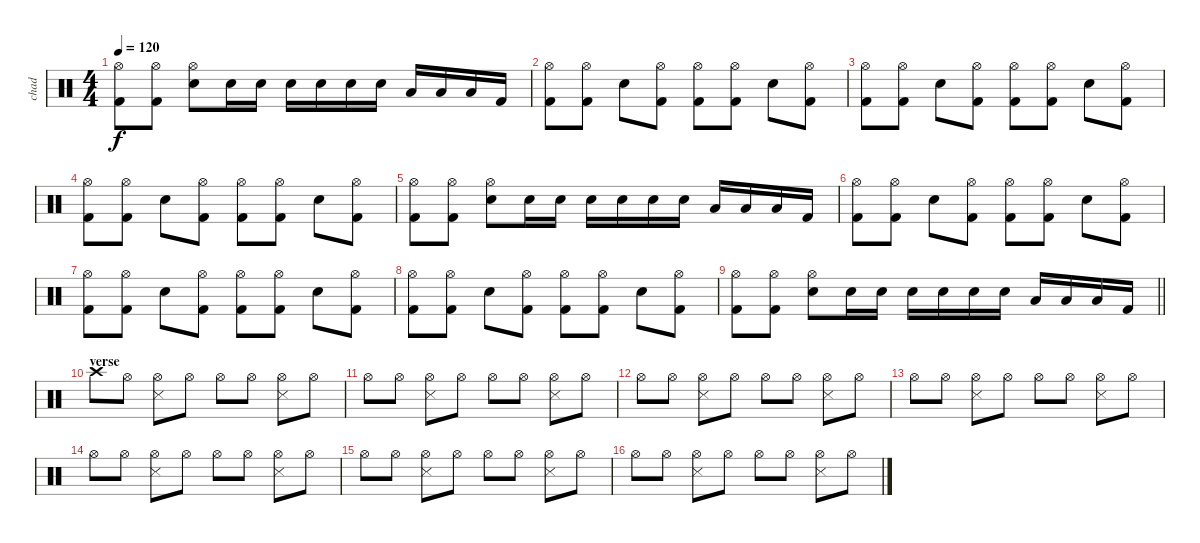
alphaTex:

\track ("chad" "chad") {instrument percussion}
\staff {score}
\articulation defaults
\ts (4 4)
\tempo 120
\clef neutral
\ks c
("Hi-Hat (open)" "Kick (hit) 2").8{dy f} ("Hi-Hat (open)" "Kick (hit) 2").8 ("Hi-Hat (open)" "Electric Snare (hit)").8 "Snare (hit) 2".16 "Snare (hit) 2".16 "Snare (hit) 2".16 "Electric Snare (hit)".16 "Electric Snare (hit)".16 "Electric Snare (hit)".16 "Low Tom (hit)".16 "Low Tom (hit)".16 "Low Tom (hit)".16 "Kick (hit) 2".16 |
("Hi-Hat (open)" "Kick (hit) 2").8 ("Hi-Hat (open)" "Kick (hit) 2").8 "Electric Snare (hit)".8 ("Hi-Hat (open)" "Kick (hit) 2").8 ("Hi-Hat (open)" "Kick (hit) 2").8 ("Hi-Hat (open)" "Kick (hit) 2").8 "Electric Snare (hit)".8 ("Hi-Hat (open)" "Kick (hit) 2").8 |
("Hi-Hat (open)" "Kick (hit) 2").8 ("Hi-Hat (open)" "Kick (hit) 2").8 "Electric Snare (hit)".8 ("Hi-Hat (open)" "Kick (hit) 2").8 ("Hi-Hat (open)" "Kick (hit) 2").8 ("Hi-Hat (open)" "Kick (hit) 2").8 "Electric Snare (hit)".8 ("Hi-Hat (open)" "Kick (hit) 2").8 |
("Hi-Hat (open)" "Kick (hit) 2").8 ("Hi-Hat (open)" "Kick (hit) 2").8 "Electric Snare (hit)".8 ("Hi-Hat (open)" "Kick (hit) 2").8 ("Hi-Hat (open)" "Kick (hit) 2").8 ("Hi-Hat (open)" "Kick (hit) 2").8 "Electric Snare (hit)".8 ("Hi-Hat (open)" "Kick (hit) 2").8 |
("Hi-Hat (open)" "Kick (hit) 2").8 ("Hi-Hat (open)" "Kick (hit) 2").8 ("Hi-Hat (open)" "Electric Snare (hit)").8 "Snare (hit) 2".16 "Snare (hit) 2".16 "Snare (hit) 2".16 "Electric Snare (hit)".16 "Electric Snare (hit)".16 "Electric Snare (hit)".16 "Low Tom (hit)".16 "Low Tom (hit)".16 "Low Tom (hit)".16 "Kick (hit) 2".16 |
("Hi-Hat (open)" "Kick (hit) 2").8 ("Hi-Hat (open)" "Kick (hit) 2").8 "Electric Snare (hit)".8 ("Hi-Hat (open)" "Kick (hit) 2").8 ("Hi-Hat (open)" "Kick (hit) 2").8 ("Hi-Hat (open)" "Kick (hit) 2").8 "Electric Snare (hit)".8 ("Hi-Hat (open)" "Kick (hit) 2").8 |
("Hi-Hat (open)" "Kick (hit) 2").8 ("Hi-Hat (open)" "Kick (hit) 2").8 "Electric Snare (hit)".8 ("Hi-Hat (open)" "Kick (hit) 2").8 ("Hi-Hat (open)" "Kick (hit) 2").8 ("Hi-Hat (open)" "Kick (hit) 2").8 "Electric Snare (hit)".8 ("Hi-Hat (open)" "Kick (hit) 2").8 |
("Hi-Hat (open)" "Kick (hit) 2").8 ("Hi-Hat (open)" "Kick (hit) 2").8 "Electric Snare (hit)".8 ("Hi-Hat (open)" "Kick (hit) 2").8 ("Hi-Hat (open)" "Kick (hit) 2").8 ("Hi-Hat (open)" "Kick (hit) 2").8 "Electric Snare (hit)".8 ("Hi-Hat (open)" "Kick (hit) 2").8 |
\barLineRight lightlight
("Hi-Hat (open)" "Kick (hit) 2").8 ("Hi-Hat (open)" "Kick (hit) 2").8 ("Hi-Hat (open)" "Electric Snare (hit)").8 "Snare (hit) 2".16 "Snare (hit) 2".16 "Snare (hit) 2".16 "Electric Snare (hit)".16 "Electric Snare (hit)".16 "Electric Snare (hit)".16 "Low Tom (hit)".16 "Low Tom (hit)".16 "Low Tom (hit)".16 "Kick (hit) 2".16 |
\section ("" "verse")
"Crash high (hit)".8 "Hi-Hat (open)".8 ("Hi-Hat (open)" "Snare (side stick) 3").8 "Hi-Hat (open)".8 "Hi-Hat (open)".8 "Hi-Hat (open)".8 ("Hi-Hat (open)" "Snare (side stick) 3").8 "Hi-Hat (open)".8 |
"Hi-Hat (open)".8 "Hi-Hat (open)".8 ("Hi-Hat (open)" "Snare (side stick) 3").8 "Hi-Hat (open)".8 "Hi-Hat (open)".8 "Hi-Hat (open)".8 ("Hi-Hat (open)" "Snare (side stick) 3").8 "Hi-Hat (open)".8 |
"Hi-Hat (open)".8 "Hi-Hat (open)".8 ("Hi-Hat (open)" "Snare (side stick) 3").8 "Hi-Hat (open)".8 "Hi-Hat (open)".8 "Hi-Hat (open)".8 ("Hi-Hat (open)" "Snare (side stick) 3").8 "Hi-Hat (open)".8 |
"Hi-Hat (open)".8 "Hi-Hat (open)".8 ("Hi-Hat (open)" "Snare (side stick) 3").8 "Hi-Hat (open)".8 "Hi-Hat (open)".8 "Hi-Hat (open)".8 ("Hi-Hat (open)" "Snare (side stick) 3").8 "Hi-Hat (open)".8 |
"Hi-Hat (open)".8 "Hi-Hat (open)".8 ("Hi-Hat (open)" "Snare (side stick) 3").8 "Hi-Hat (open)".8 "Hi-Hat (open)".8 "Hi-Hat (open)".8 ("Hi-Hat (open)" "Snare (side stick) 3").8 "Hi-Hat (open)".8 |
"Hi-Hat (open)".8 "Hi-Hat (open)".8 ("Hi-Hat (open)" "Snare (side stick) 3").8 "Hi-Hat (open)".8 "Hi-Hat (open)".8 "Hi-Hat (open)".8 ("Hi-Hat (open)" "Snare (side stick) 3").8 "Hi-Hat (open)".8 |
"Hi-Hat (open)".8 "Hi-Hat (open)".8 ("Hi-Hat (open)" "Snare (side stick) 3").8 "Hi-Hat (open)".8 "Hi-Hat (open)".8 "Hi-Hat (open)".8 ("Hi-Hat (open)" "Snare (side stick) 3").8 "Hi-Hat (open)".8
